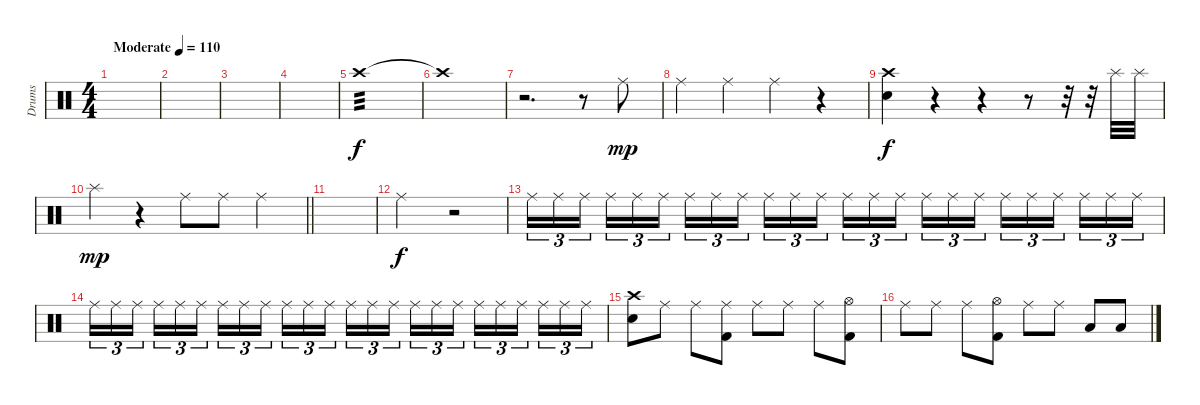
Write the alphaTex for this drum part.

\track ("Drums" "Drums") {instrument percussion}
\staff {score}
\articulation defaults
\ts (4 4)
\tempo (110 "Moderate")
\clef neutral
\ks c
|
|
|
|
"Crash high (hit)".1{tp 3 volume 12} |
"Crash high (hit)"{t}.1 |
r.2{d} r.8 "Ride (middle)".8{dy mp} |
"Ride (middle)".4 "Ride (middle)".4 "Ride (middle)".4 r.4 |
("Crash high (hit)" "Snare (hit) 2").4{dy f} r.4 r.4 r.8 r.32 r.32 "Splash (hit)".32 "Splash (hit)".32 |
\barLineRight lightlight "Splash (hit)".4{dy mp}
r.4 "Ride (middle)".8 "Ride (middle)".8 "Ride (middle)".4 |
|
"Ride (middle)".2{dy f} r.2{volume 0} |
"Ride (middle)".16{tu (3 2) volume 12} "Ride (middle)".16{tu (3 2)} "Ride (middle)".16{tu (3 2) beam splitsecondary} "Ride (middle)".16{tu (3 2)} "Ride (middle)".16{tu (3 2)} "Ride (middle)".16{tu (3 2)} "Ride (middle)".16{tu (3 2)} "Ride (middle)".16{tu (3 2)} "Ride (middle)".16{tu (3 2) beam splitsecondary} "Ride (middle)".16{tu (3 2)} "Ride (middle)".16{tu (3 2)} "Ride (middle)".16{tu (3 2)} "Ride (middle)".16{tu (3 2)} "Ride (middle)".16{tu (3 2)} "Ride (middle)".16{tu (3 2) beam splitsecondary} "Ride (middle)".16{tu (3 2)} "Ride (middle)".16{tu (3 2)} "Ride (middle)".16{tu (3 2)} "Ride (middle)".16{tu (3 2)} "Ride (middle)".16{tu (3 2)} "Ride (middle)".16{tu (3 2) beam splitsecondary} "Ride (middle)".16{tu (3 2)} "Ride (middle)".16{tu (3 2)} "Ride (middle)".16{tu (3 2)} |
"Ride (middle)".16{tu (3 2)} "Ride (middle)".16{tu (3 2)} "Ride (middle)".16{tu (3 2) beam splitsecondary} "Ride (middle)".16{tu (3 2)} "Ride (middle)".16{tu (3 2)} "Ride (middle)".16{tu (3 2)} "Ride (middle)".16{tu (3 2)} "Ride (middle)".16{tu (3 2)} "Ride (middle)".16{tu (3 2) beam splitsecondary} "Ride (middle)".16{tu (3 2)} "Ride (middle)".16{tu (3 2)} "Ride (middle)".16{tu (3 2)} "Ride (middle)".16{tu (3 2)} "Ride (middle)".16{tu (3 2)} "Ride (middle)".16{tu (3 2) beam splitsecondary} "Ride (middle)".16{tu (3 2)} "Ride (middle)".16{tu (3 2)} "Ride (middle)".16{tu (3 2)} "Ride (middle)".16{tu (3 2)} "Ride (middle)".16{tu (3 2)} "Ride (middle)".16{tu (3 2) beam splitsecondary} "Ride (middle)".16{tu (3 2)} "Ride (middle)".16{tu (3 2)} "Ride (middle)".16{tu (3 2)} |
("Crash high (hit)" "Snare (hit) 2").8 "Ride (middle)".8 "Ride (middle)".8 ("Ride (middle)" "Kick (hit) 2").8 "Ride (middle)".8 "Ride (middle)".8 "Ride (middle)".8 ("Hi-Hat (open)" "Kick (hit) 2").8 |
"Ride (middle)".8 "Ride (middle)".8 "Ride (middle)".8 ("Hi-Hat (open)" "Kick (hit) 2").8 "Ride (middle)".8 "Ride (middle)".8 "Low Floor Tom (hit)".8 "Low Floor Tom (hit)".8
